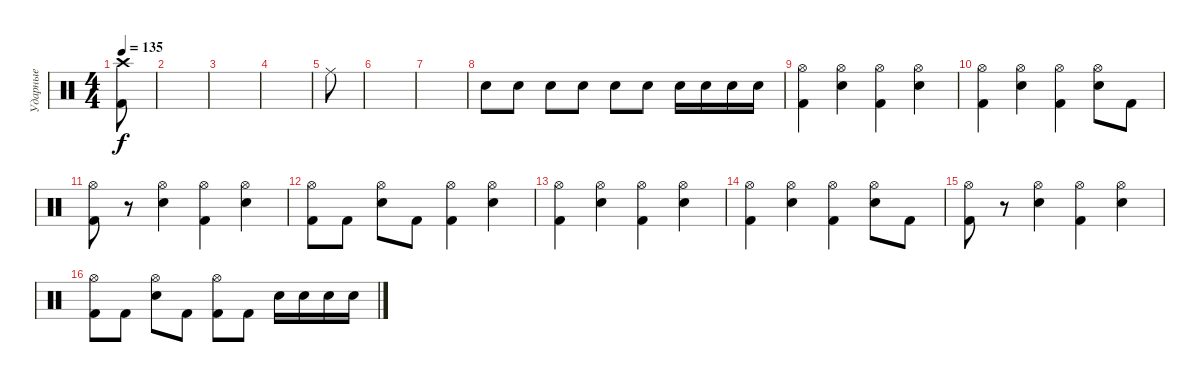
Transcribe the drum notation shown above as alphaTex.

\track ("Ударные" "Ударные") {instrument percussion}
\staff {score}
\articulation defaults
\ts (4 4)
\tempo 135
\clef neutral
\ks c
("Kick (hit) 2" "Crash high (hit)").8{dy f} |
|
|
|
"Ride (middle)".8 |
|
|
"Snare (hit) 2".8 "Snare (hit) 2".8 "Snare (hit) 2".8 "Snare (hit) 2".8 "Snare (hit) 2".8 "Snare (hit) 2".8 "Electric Snare (hit)".16 "Electric Snare (hit)".16 "Electric Snare (hit)".16 "Electric Snare (hit)".16 |
("Kick (hit) 2" "Hi-Hat (open)").4 ("Electric Snare (hit)" "Hi-Hat (open)").4 ("Kick (hit) 2" "Hi-Hat (open)").4 ("Electric Snare (hit)" "Hi-Hat (open)").4 |
("Kick (hit) 2" "Hi-Hat (open)").4 ("Electric Snare (hit)" "Hi-Hat (open)").4 ("Kick (hit) 2" "Hi-Hat (open)").4 ("Electric Snare (hit)" "Hi-Hat (open)").8 "Kick (hit) 2".8 |
("Kick (hit) 2" "Hi-Hat (open)").8 r.8 ("Electric Snare (hit)" "Hi-Hat (open)").4 ("Kick (hit) 2" "Hi-Hat (open)").4 ("Electric Snare (hit)" "Hi-Hat (open)").4 |
("Kick (hit) 2" "Hi-Hat (open)").8 "Kick (hit) 2".8 ("Electric Snare (hit)" "Hi-Hat (open)").8 "Kick (hit) 2".8 ("Kick (hit) 2" "Hi-Hat (open)").4 ("Electric Snare (hit)" "Hi-Hat (open)").4 |
("Kick (hit) 2" "Hi-Hat (open)").4 ("Electric Snare (hit)" "Hi-Hat (open)").4 ("Kick (hit) 2" "Hi-Hat (open)").4 ("Electric Snare (hit)" "Hi-Hat (open)").4 |
("Kick (hit) 2" "Hi-Hat (open)").4 ("Electric Snare (hit)" "Hi-Hat (open)").4 ("Kick (hit) 2" "Hi-Hat (open)").4 ("Electric Snare (hit)" "Hi-Hat (open)").8 "Kick (hit) 2".8 |
("Kick (hit) 2" "Hi-Hat (open)").8 r.8 ("Electric Snare (hit)" "Hi-Hat (open)").4 ("Kick (hit) 2" "Hi-Hat (open)").4 ("Electric Snare (hit)" "Hi-Hat (open)").4 |
("Kick (hit) 2" "Hi-Hat (open)").8 "Kick (hit) 2".8 ("Electric Snare (hit)" "Hi-Hat (open)").8 "Kick (hit) 2".8 ("Kick (hit) 2" "Hi-Hat (open)").8 "Kick (hit) 2".8 "Electric Snare (hit)".16 "Electric Snare (hit)".16 "Electric Snare (hit)".16 "Electric Snare (hit)".16
